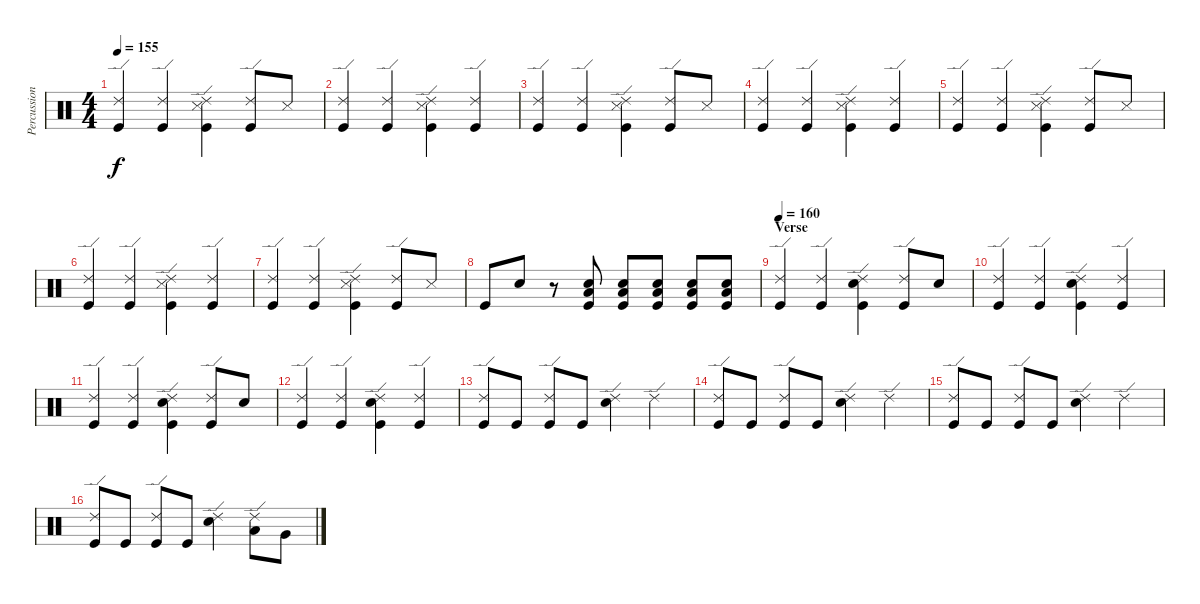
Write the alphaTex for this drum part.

\track ("Percussion" "Percussion") {instrument percussion}
\staff {score}
\articulation defaults
\ts (4 4)
\tempo 155
\clef neutral
\ks c
("Ride (edge) 2" "Kick (hit)").4{dy f} ("Ride (edge) 2" "Kick (hit)").4 ("Ride (edge) 2" "Snare (side stick) 3" "Kick (hit)").4 ("Ride (edge) 2" "Kick (hit)").8 "Snare (side stick) 3".8 |
("Ride (edge) 2" "Kick (hit)").4 ("Ride (edge) 2" "Kick (hit)").4 ("Ride (edge) 2" "Snare (side stick) 3" "Kick (hit)").4 ("Ride (edge) 2" "Kick (hit)").4 |
("Ride (edge) 2" "Kick (hit)").4 ("Ride (edge) 2" "Kick (hit)").4 ("Ride (edge) 2" "Snare (side stick) 3" "Kick (hit)").4 ("Ride (edge) 2" "Kick (hit)").8 "Snare (side stick) 3".8 |
("Ride (edge) 2" "Kick (hit)").4 ("Ride (edge) 2" "Kick (hit)").4 ("Ride (edge) 2" "Snare (side stick) 3" "Kick (hit)").4 ("Ride (edge) 2" "Kick (hit)").4 |
("Ride (edge) 2" "Kick (hit)").4 ("Ride (edge) 2" "Kick (hit)").4 ("Ride (edge) 2" "Snare (side stick) 3" "Kick (hit)").4 ("Ride (edge) 2" "Kick (hit)").8 "Snare (side stick) 3".8 |
("Ride (edge) 2" "Kick (hit)").4 ("Ride (edge) 2" "Kick (hit)").4 ("Ride (edge) 2" "Snare (side stick) 3" "Kick (hit)").4 ("Ride (edge) 2" "Kick (hit)").4 |
("Ride (edge) 2" "Kick (hit)").4 ("Ride (edge) 2" "Kick (hit)").4 ("Ride (edge) 2" "Snare (side stick) 3" "Kick (hit)").4 ("Ride (edge) 2" "Kick (hit)").8 "Snare (side stick) 3".8 |
"Kick (hit)".8 "Snare (hit) 2".8 r.8 ("Snare (hit) 2" "Low Floor Tom (hit)" "Kick (hit)").8 ("Snare (hit) 2" "Low Floor Tom (hit)" "Kick (hit)").8 ("Snare (hit) 2" "Low Floor Tom (hit)" "Kick (hit)").8 ("Snare (hit) 2" "Low Floor Tom (hit)" "Kick (hit)").8 ("Snare (hit) 2" "Low Floor Tom (hit)" "Kick (hit)").8 |
\section ("" "Verse")
\tempo 160
("Ride (edge) 2" "Kick (hit)").4 ("Ride (edge) 2" "Kick (hit)").4 ("Ride (edge) 2" "Snare (hit) 2" "Kick (hit)").4 ("Ride (edge) 2" "Kick (hit)").8 "Snare (hit) 2".8 |
("Ride (edge) 2" "Kick (hit)").4 ("Ride (edge) 2" "Kick (hit)").4 ("Ride (edge) 2" "Snare (hit) 2" "Kick (hit)").4 ("Ride (edge) 2" "Kick (hit)").4 |
("Ride (edge) 2" "Kick (hit)").4 ("Ride (edge) 2" "Kick (hit)").4 ("Ride (edge) 2" "Snare (hit) 2" "Kick (hit)").4 ("Ride (edge) 2" "Kick (hit)").8 "Snare (hit) 2".8 |
("Ride (edge) 2" "Kick (hit)").4 ("Ride (edge) 2" "Kick (hit)").4 ("Ride (edge) 2" "Snare (hit) 2" "Kick (hit)").4 ("Ride (edge) 2" "Kick (hit)").4 |
("Ride (edge) 2" "Kick (hit)").8 "Kick (hit)".8 ("Ride (edge) 2" "Kick (hit)").8 "Kick (hit)".8 ("Ride (edge) 2" "Snare (hit) 2").4 "Ride (edge) 2".4 |
("Ride (edge) 2" "Kick (hit)").8 "Kick (hit)".8 ("Ride (edge) 2" "Kick (hit)").8 "Kick (hit)".8 ("Ride (edge) 2" "Snare (hit) 2").4 "Ride (edge) 2".4 |
("Ride (edge) 2" "Kick (hit)").8 "Kick (hit)".8 ("Ride (edge) 2" "Kick (hit)").8 "Kick (hit)".8 ("Ride (edge) 2" "Snare (hit) 2").4 "Ride (edge) 2".4 |
("Ride (edge) 2" "Kick (hit)").8 "Kick (hit)".8 ("Ride (edge) 2" "Kick (hit)").8 "Kick (hit)".8 ("Ride (edge) 2" "Snare (hit) 2").4 ("Ride (edge) 2" "Low Tom (hit)").8 "Very Low Tom (hit)".8
